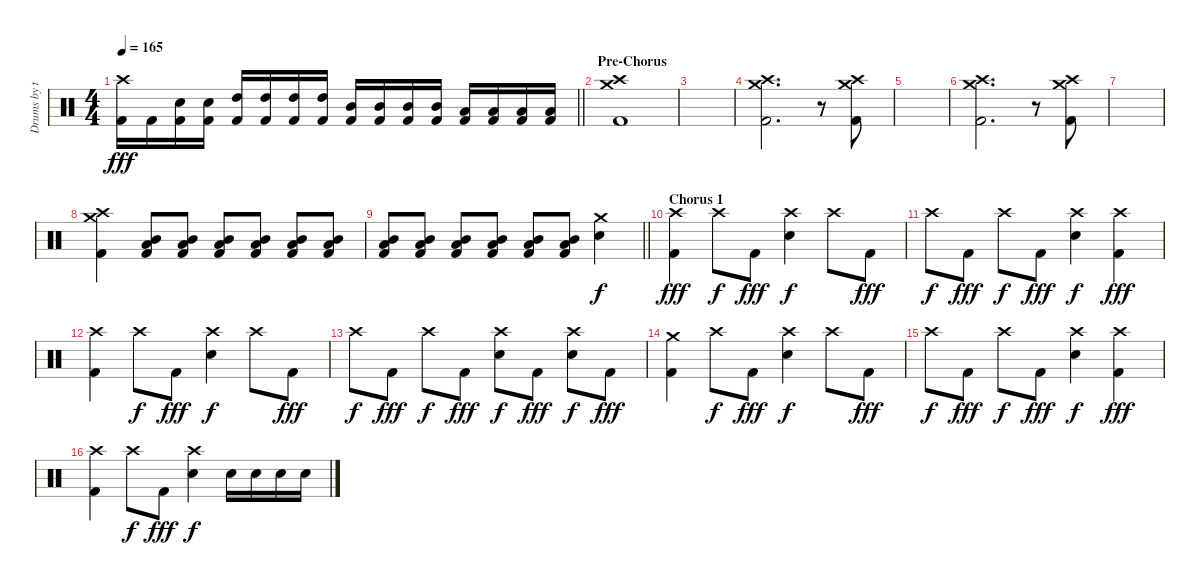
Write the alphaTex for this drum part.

\track ("Drums by terryn0" "Drums by t") {instrument percussion}
\staff {score}
\articulation defaults
\ts (4 4)
\tempo 165
\clef neutral
\barLineRight lightlight
\ks c
("Crash high (hit)" "Kick (hit) 2").16{dy fff} "Kick (hit) 2".16 ("Electric Snare (hit)" "Kick (hit) 2").16 ("Electric Snare (hit)" "Kick (hit) 2").16 ("High Tom (hit)" "Kick (hit) 2").16 ("High Tom (hit)" "Kick (hit) 2").16 ("High Tom (hit)" "Kick (hit) 2").16 ("High Tom (hit)" "Kick (hit) 2").16 ("Mid Tom (hit)" "Kick (hit) 2").16 ("Mid Tom (hit)" "Kick (hit) 2").16 ("Mid Tom (hit)" "Kick (hit) 2").16 ("Mid Tom (hit)" "Kick (hit) 2").16 ("Low Tom (hit)" "Kick (hit) 2").16 ("Low Tom (hit)" "Kick (hit) 2").16 ("Low Tom (hit)" "Kick (hit) 2").16 ("Low Tom (hit)" "Kick (hit) 2").16 |
\section ("" "Pre-Chorus")
("Crash medium (hit)" "Crash high (hit)" "Kick (hit) 2").1 |
|
("Crash medium (hit)" "Crash high (hit)" "Kick (hit) 2").2{d} r.8 ("Crash medium (hit)" "Crash high (hit)" "Kick (hit) 2").8 |
|
("Crash medium (hit)" "Crash high (hit)" "Kick (hit) 2").2{d} r.8 ("Crash medium (hit)" "Crash high (hit)" "Kick (hit) 2").8 |
|
("Crash medium (hit)" "Crash high (hit)" "Kick (hit) 2").4 ("Mid Tom (hit)" "Low Tom (hit)" "Kick (hit) 2").8 ("Mid Tom (hit)" "Low Tom (hit)" "Kick (hit) 2").8 ("Mid Tom (hit)" "Low Tom (hit)" "Kick (hit) 2").8 ("Mid Tom (hit)" "Low Tom (hit)" "Kick (hit) 2").8 ("Mid Tom (hit)" "Low Tom (hit)" "Kick (hit) 2").8 ("Mid Tom (hit)" "Low Tom (hit)" "Kick (hit) 2").8 |
\barLineRight lightlight
("Mid Tom (hit)" "Low Tom (hit)" "Kick (hit) 2").8 ("Mid Tom (hit)" "Low Tom (hit)" "Kick (hit) 2").8 ("Mid Tom (hit)" "Low Tom (hit)" "Kick (hit) 2").8 ("Mid Tom (hit)" "Low Tom (hit)" "Kick (hit) 2").8 ("Mid Tom (hit)" "Low Tom (hit)" "Kick (hit) 2").8 ("Mid Tom (hit)" "Low Tom (hit)" "Kick (hit) 2").8 ("Crash medium (hit)" "Electric Snare (hit)").4{dy f} |
\section ("" "Chorus 1")
("Crash high (hit)" "Kick (hit) 2").4{dy fff} "Crash high (hit)".8{dy f} "Kick (hit) 2".8{dy fff} ("Crash high (hit)" "Electric Snare (hit)").4{dy f} "Crash high (hit)".8 "Kick (hit) 2".8{dy fff} |
"Crash high (hit)".8{dy f} "Kick (hit) 2".8{dy fff} "Crash high (hit)".8{dy f} "Kick (hit) 2".8{dy fff} ("Crash high (hit)" "Electric Snare (hit)").4{dy f} ("Crash high (hit)" "Kick (hit) 2").4{dy fff} |
("Crash high (hit)" "Kick (hit) 2").4 "Crash high (hit)".8{dy f} "Kick (hit) 2".8{dy fff} ("Crash high (hit)" "Electric Snare (hit)").4{dy f} "Crash high (hit)".8 "Kick (hit) 2".8{dy fff} |
"Crash high (hit)".8{dy f} "Kick (hit) 2".8{dy fff} "Crash high (hit)".8{dy f} "Kick (hit) 2".8{dy fff} ("Crash high (hit)" "Electric Snare (hit)").8{dy f} "Kick (hit) 2".8{dy fff} ("Crash high (hit)" "Electric Snare (hit)").8{dy f} "Kick (hit) 2".8{dy fff} |
("Crash medium (hit)" "Kick (hit) 2").4 "Crash high (hit)".8{dy f} "Kick (hit) 2".8{dy fff} ("Crash high (hit)" "Electric Snare (hit)").4{dy f} "Crash high (hit)".8 "Kick (hit) 2".8{dy fff} |
"Crash high (hit)".8{dy f} "Kick (hit) 2".8{dy fff} "Crash high (hit)".8{dy f} "Kick (hit) 2".8{dy fff} ("Crash high (hit)" "Electric Snare (hit)").4{dy f} ("Crash high (hit)" "Kick (hit) 2").4{dy fff} |
("Crash high (hit)" "Kick (hit) 2").4 "Crash high (hit)".8{dy f} "Kick (hit) 2".8{dy fff} ("Crash high (hit)" "Electric Snare (hit)").4{dy f} "Electric Snare (hit)".16 "Electric Snare (hit)".16 "Electric Snare (hit)".16 "Electric Snare (hit)".16
